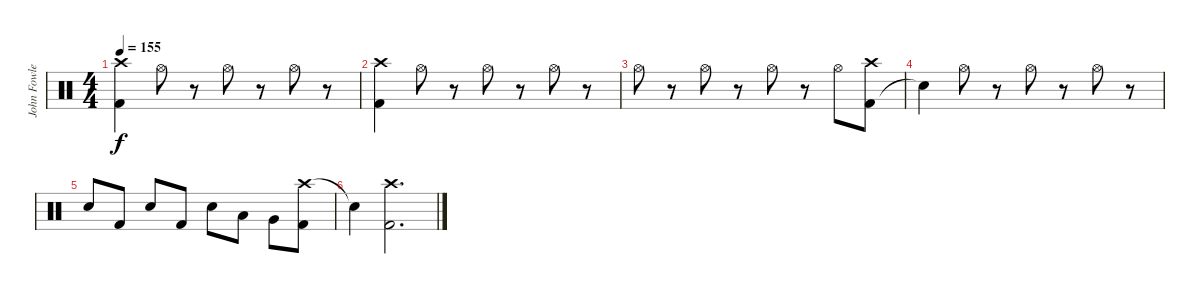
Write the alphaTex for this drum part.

\track ("John Fowler - Drums" "John Fowle") {instrument percussion}
\staff {score}
\articulation defaults
\ts (4 4)
\tempo 155
\clef neutral
\ks c
("Crash high (hit)" "Kick (hit) 2").4{dy f} "Hi-Hat (open)".8 r.8 "Hi-Hat (open)".8 r.8 "Hi-Hat (open)".8 r.8 |
("Kick (hit) 2" "Crash high (hit)").4 "Hi-Hat (open)".8 r.8 "Hi-Hat (open)".8 r.8 "Hi-Hat (open)".8 r.8 |
"Hi-Hat (open)".8 r.8 "Hi-Hat (open)".8 r.8 "Hi-Hat (open)".8 r.8 "Hi-Hat (open)".8 ("Kick (hit) 2" "Crash high (hit)").8 |
"Snare (hit)"{t}.4 "Hi-Hat (open)".8 r.8 "Hi-Hat (open)".8 r.8 "Hi-Hat (open)".8 r.8 |
"Electric Snare (hit)".8 "Kick (hit) 2".8 "Electric Snare (hit)".8 "Kick (hit) 2".8 "Electric Snare (hit)".8 "Low Tom (hit)".8 "Very Low Tom (hit)".8 ("Crash high (hit)" "Kick (hit) 2").8 |
"Snare (hit)"{t}.4 ("Crash high (hit)" "Kick (hit) 2").2{d}
